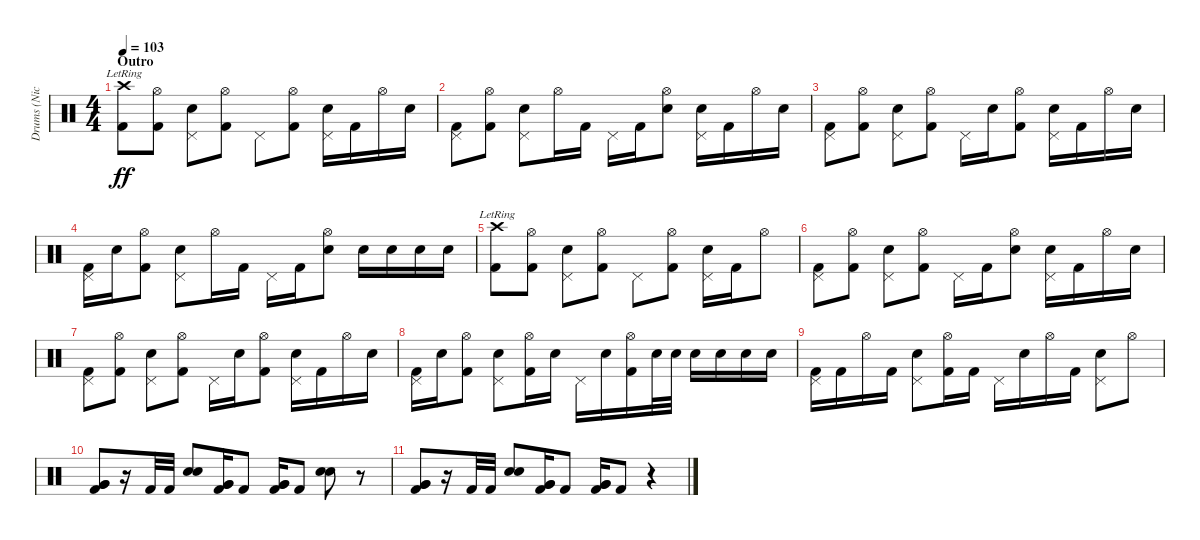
\track ("Drums (Nick Oshiro)" "Drums (Nic") {instrument percussion}
\staff {score}
\articulation defaults
\ts (4 4)
\section ("" "Outro")
\tempo 103
\clef neutral
\ks c
("Crash high (hit)"{lr} "Kick (hit) 2").8{dy ff} ("Hi-Hat (open)" "Kick (hit) 2").8 ("Pedal Hi-Hat (hit)" "Snare (hit) 2").8 ("Hi-Hat (open)" "Kick (hit) 2").8 "Pedal Hi-Hat (hit)".8 ("Hi-Hat (open)" "Kick (hit) 2").8 ("Pedal Hi-Hat (hit)" "Snare (hit) 2").16 "Kick (hit) 2".16 "Hi-Hat (open)".16 "Snare (hit) 2".16 |
("Pedal Hi-Hat (hit)" "Kick (hit) 2").8 ("Hi-Hat (open)" "Kick (hit) 2").8 ("Pedal Hi-Hat (hit)" "Snare (hit) 2").8 "Hi-Hat (open)".16 "Kick (hit) 2".16 "Pedal Hi-Hat (hit)".16 "Kick (hit) 2".16 ("Hi-Hat (open)" "Snare (hit) 2").8 ("Pedal Hi-Hat (hit)" "Snare (hit) 2").16 "Kick (hit) 2".16 "Hi-Hat (open)".16 "Snare (hit) 2".16 |
("Pedal Hi-Hat (hit)" "Kick (hit) 2").8 ("Hi-Hat (open)" "Kick (hit) 2").8 ("Pedal Hi-Hat (hit)" "Snare (hit) 2").8 ("Hi-Hat (open)" "Kick (hit) 2").8 "Pedal Hi-Hat (hit)".16 "Snare (hit) 2".16 ("Hi-Hat (open)" "Kick (hit) 2").8 ("Pedal Hi-Hat (hit)" "Snare (hit) 2").16 "Kick (hit) 2".16 "Hi-Hat (open)".16 "Snare (hit) 2".16 |
("Pedal Hi-Hat (hit)" "Kick (hit) 2").16 "Snare (hit) 2".16 ("Hi-Hat (open)" "Kick (hit) 2").8 ("Pedal Hi-Hat (hit)" "Snare (hit) 2").8 "Hi-Hat (open)".16 "Kick (hit) 2".16 "Pedal Hi-Hat (hit)".16 "Kick (hit) 2".16 ("Hi-Hat (open)" "Snare (hit) 2").8 "Snare (hit) 2".16 "Snare (hit) 2".16 "Snare (hit) 2".16 "Snare (hit) 2".16 |
("Crash high (hit)"{lr} "Kick (hit) 2").8 ("Hi-Hat (open)" "Kick (hit) 2").8 ("Pedal Hi-Hat (hit)" "Snare (hit) 2").8 ("Hi-Hat (open)" "Kick (hit) 2").8 "Pedal Hi-Hat (hit)".8 ("Hi-Hat (open)" "Kick (hit) 2").8 ("Pedal Hi-Hat (hit)" "Snare (hit) 2").16 "Kick (hit) 2".16 "Hi-Hat (open)".8 |
("Pedal Hi-Hat (hit)" "Kick (hit) 2").8 ("Hi-Hat (open)" "Kick (hit) 2").8 ("Pedal Hi-Hat (hit)" "Snare (hit) 2").8 ("Hi-Hat (open)" "Kick (hit) 2").8 "Pedal Hi-Hat (hit)".16 "Kick (hit) 2".16 ("Hi-Hat (open)" "Snare (hit) 2").8 ("Pedal Hi-Hat (hit)" "Snare (hit) 2").16 "Kick (hit) 2".16 "Hi-Hat (open)".16 "Snare (hit) 2".16 |
("Pedal Hi-Hat (hit)" "Kick (hit) 2").8 ("Hi-Hat (open)" "Kick (hit) 2").8 ("Pedal Hi-Hat (hit)" "Snare (hit) 2").8 ("Hi-Hat (open)" "Kick (hit) 2").8 "Pedal Hi-Hat (hit)".16 "Snare (hit) 2".16 ("Hi-Hat (open)" "Kick (hit) 2").8 ("Pedal Hi-Hat (hit)" "Snare (hit) 2").16 "Kick (hit) 2".16 "Hi-Hat (open)".16 "Snare (hit) 2".16 |
("Pedal Hi-Hat (hit)" "Kick (hit) 2").16 "Snare (hit) 2".16 ("Hi-Hat (open)" "Kick (hit) 2").8 ("Pedal Hi-Hat (hit)" "Snare (hit) 2").8 ("Hi-Hat (open)" "Kick (hit) 2").16 "Snare (hit) 2".16 "Pedal Hi-Hat (hit)".16 "Snare (hit) 2".16 ("Hi-Hat (open)" "Kick (hit) 2").16 "Snare (hit) 2".32 "Snare (hit) 2".32 "Snare (hit) 2".16 "Snare (hit) 2".16 "Snare (hit) 2".16 "Snare (hit) 2".16 |
("Pedal Hi-Hat (hit)" "Kick (hit) 2").16 "Kick (hit) 2".16 "Hi-Hat (open)".16 "Kick (hit) 2".16 ("Pedal Hi-Hat (hit)" "Snare (hit) 2").8 ("Hi-Hat (open)" "Kick (hit) 2").16 "Kick (hit) 2".16 "Pedal Hi-Hat (hit)".16 "Snare (hit) 2".16 "Hi-Hat (open)".16 "Kick (hit) 2".16 ("Pedal Hi-Hat (hit)" "Snare (hit) 2").8 "Hi-Hat (open)".8 |
("Very Low Tom (hit)" "Very Low Tom (hit)" "Kick (hit) 2").8 r.16 "Kick (hit) 2".32 "Kick (hit) 2".32 ("Snare (hit) 2" "Snare (hit) 2").8 ("Very Low Tom (hit)" "Very Low Tom (hit)" "Kick (hit) 2").16 "Kick (hit) 2".8 ("Very Low Tom (hit)" "Very Low Tom (hit)" "Kick (hit) 2").16 "Kick (hit) 2".8 ("Snare (hit) 2" "Snare (hit) 2").8 r.8 |
("Very Low Tom (hit)" "Very Low Tom (hit)" "Kick (hit) 2").8 r.16 "Kick (hit) 2".32 "Kick (hit) 2".32 ("Snare (hit) 2" "Snare (hit) 2").8 ("Very Low Tom (hit)" "Very Low Tom (hit)" "Kick (hit) 2").16 "Kick (hit) 2".8 ("Very Low Tom (hit)" "Very Low Tom (hit)" "Kick (hit) 2").16 "Kick (hit) 2".8 r.4
